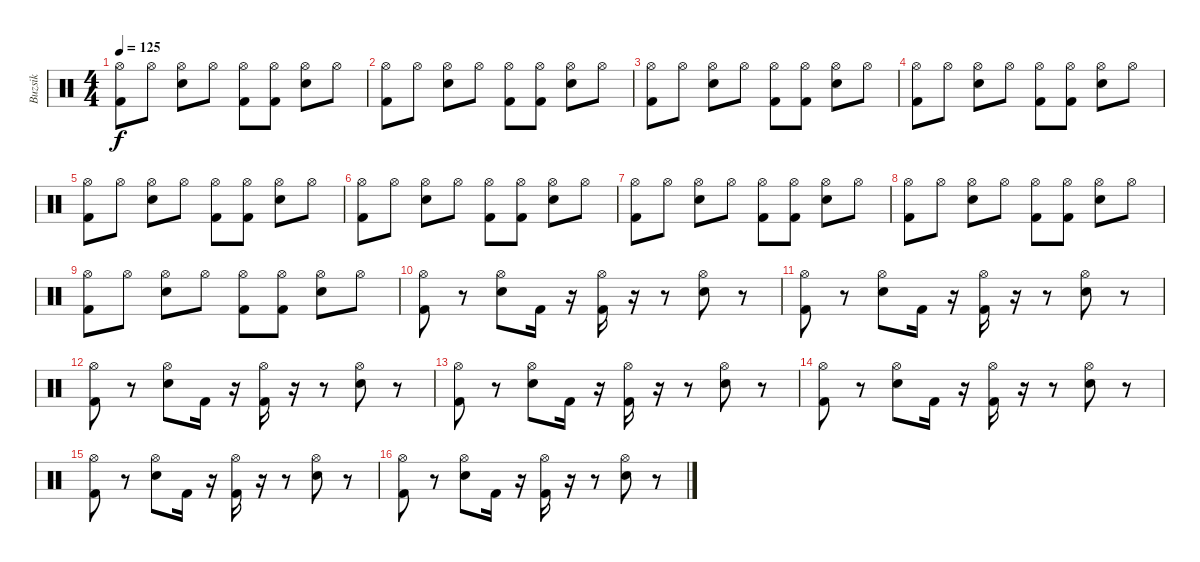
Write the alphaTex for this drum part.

\track ("Buzsik" "Buzsik") {instrument percussion}
\staff {score}
\articulation defaults
\ts (4 4)
\tempo 125
\clef neutral
\ks c
("Hi-Hat (open)" "Kick (hit) 2").8{dy f} "Hi-Hat (open)".8 ("Hi-Hat (open)" "Electric Snare (hit)").8 "Hi-Hat (open)".8 ("Hi-Hat (open)" "Kick (hit) 2").8 ("Hi-Hat (open)" "Kick (hit) 2").8 ("Hi-Hat (open)" "Electric Snare (hit)").8 "Hi-Hat (open)".8 |
("Hi-Hat (open)" "Kick (hit) 2").8 "Hi-Hat (open)".8 ("Hi-Hat (open)" "Electric Snare (hit)").8 "Hi-Hat (open)".8 ("Hi-Hat (open)" "Kick (hit) 2").8 ("Hi-Hat (open)" "Kick (hit) 2").8 ("Hi-Hat (open)" "Electric Snare (hit)").8 "Hi-Hat (open)".8 |
("Hi-Hat (open)" "Kick (hit) 2").8 "Hi-Hat (open)".8 ("Hi-Hat (open)" "Electric Snare (hit)").8 "Hi-Hat (open)".8 ("Hi-Hat (open)" "Kick (hit) 2").8 ("Hi-Hat (open)" "Kick (hit) 2").8 ("Hi-Hat (open)" "Electric Snare (hit)").8 "Hi-Hat (open)".8 |
("Hi-Hat (open)" "Kick (hit) 2").8 "Hi-Hat (open)".8 ("Hi-Hat (open)" "Electric Snare (hit)").8 "Hi-Hat (open)".8 ("Hi-Hat (open)" "Kick (hit) 2").8 ("Hi-Hat (open)" "Kick (hit) 2").8 ("Hi-Hat (open)" "Electric Snare (hit)").8 "Hi-Hat (open)".8 |
("Hi-Hat (open)" "Kick (hit) 2").8 "Hi-Hat (open)".8 ("Hi-Hat (open)" "Electric Snare (hit)").8 "Hi-Hat (open)".8 ("Hi-Hat (open)" "Kick (hit) 2").8 ("Hi-Hat (open)" "Kick (hit) 2").8 ("Hi-Hat (open)" "Electric Snare (hit)").8 "Hi-Hat (open)".8 |
("Hi-Hat (open)" "Kick (hit) 2").8 "Hi-Hat (open)".8 ("Hi-Hat (open)" "Electric Snare (hit)").8 "Hi-Hat (open)".8 ("Hi-Hat (open)" "Kick (hit) 2").8 ("Hi-Hat (open)" "Kick (hit) 2").8 ("Hi-Hat (open)" "Electric Snare (hit)").8 "Hi-Hat (open)".8 |
("Hi-Hat (open)" "Kick (hit) 2").8 "Hi-Hat (open)".8 ("Hi-Hat (open)" "Electric Snare (hit)").8 "Hi-Hat (open)".8 ("Hi-Hat (open)" "Kick (hit) 2").8 ("Hi-Hat (open)" "Kick (hit) 2").8 ("Hi-Hat (open)" "Electric Snare (hit)").8 "Hi-Hat (open)".8 |
("Hi-Hat (open)" "Kick (hit) 2").8 "Hi-Hat (open)".8 ("Hi-Hat (open)" "Electric Snare (hit)").8 "Hi-Hat (open)".8 ("Hi-Hat (open)" "Kick (hit) 2").8 ("Hi-Hat (open)" "Kick (hit) 2").8 ("Hi-Hat (open)" "Electric Snare (hit)").8 "Hi-Hat (open)".8 |
("Hi-Hat (open)" "Kick (hit) 2").8 "Hi-Hat (open)".8 ("Hi-Hat (open)" "Electric Snare (hit)").8 "Hi-Hat (open)".8 ("Hi-Hat (open)" "Kick (hit) 2").8 ("Hi-Hat (open)" "Kick (hit) 2").8 ("Hi-Hat (open)" "Electric Snare (hit)").8 "Hi-Hat (open)".8 |
("Hi-Hat (open)" "Kick (hit) 2").8 r.8 ("Hi-Hat (open)" "Electric Snare (hit)").8 "Kick (hit) 2".16 r.16 ("Hi-Hat (open)" "Kick (hit) 2").16 r.16 r.8 ("Hi-Hat (open)" "Electric Snare (hit)").8 r.8 |
("Hi-Hat (open)" "Kick (hit) 2").8 r.8 ("Hi-Hat (open)" "Electric Snare (hit)").8 "Kick (hit) 2".16 r.16 ("Hi-Hat (open)" "Kick (hit) 2").16 r.16 r.8 ("Hi-Hat (open)" "Electric Snare (hit)").8 r.8 |
("Hi-Hat (open)" "Kick (hit) 2").8 r.8 ("Hi-Hat (open)" "Electric Snare (hit)").8 "Kick (hit) 2".16 r.16 ("Hi-Hat (open)" "Kick (hit) 2").16 r.16 r.8 ("Hi-Hat (open)" "Electric Snare (hit)").8 r.8 |
("Hi-Hat (open)" "Kick (hit) 2").8 r.8 ("Hi-Hat (open)" "Electric Snare (hit)").8 "Kick (hit) 2".16 r.16 ("Hi-Hat (open)" "Kick (hit) 2").16 r.16 r.8 ("Hi-Hat (open)" "Electric Snare (hit)").8 r.8 |
("Hi-Hat (open)" "Kick (hit) 2").8 r.8 ("Hi-Hat (open)" "Electric Snare (hit)").8 "Kick (hit) 2".16 r.16 ("Hi-Hat (open)" "Kick (hit) 2").16 r.16 r.8 ("Hi-Hat (open)" "Electric Snare (hit)").8 r.8 |
("Hi-Hat (open)" "Kick (hit) 2").8 r.8 ("Hi-Hat (open)" "Electric Snare (hit)").8 "Kick (hit) 2".16 r.16 ("Hi-Hat (open)" "Kick (hit) 2").16 r.16 r.8 ("Hi-Hat (open)" "Electric Snare (hit)").8 r.8 |
("Hi-Hat (open)" "Kick (hit) 2").8 r.8 ("Hi-Hat (open)" "Electric Snare (hit)").8 "Kick (hit) 2".16 r.16 ("Hi-Hat (open)" "Kick (hit) 2").16 r.16 r.8 ("Hi-Hat (open)" "Electric Snare (hit)").8 r.8
